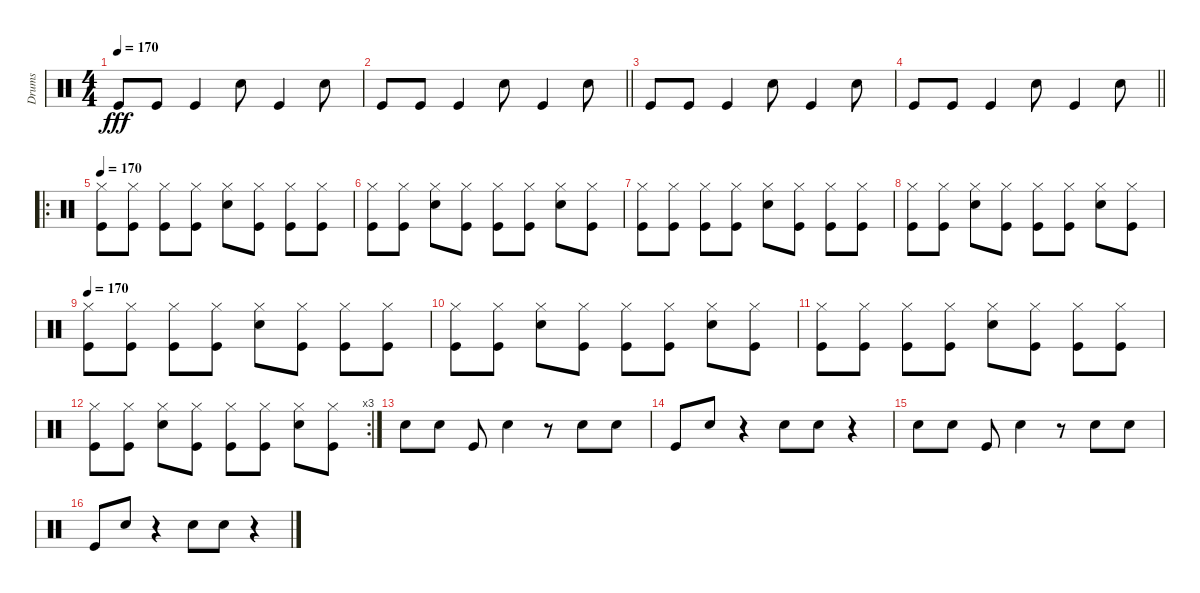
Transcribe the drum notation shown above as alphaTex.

\track ("Drums" "Drums") {instrument percussion}
\staff {score}
\articulation defaults
\ts (4 4)
\tempo 170
\clef neutral
\ks c "Kick (hit)".8{dy fff} "Kick (hit)".8 "Kick (hit)".4 "Snare (hit) 2".8 "Kick (hit)".4 "Snare (hit) 2".8
|
\barLineRight lightlight "Kick (hit)".8 "Kick (hit)".8 "Kick (hit)".4 "Snare (hit) 2".8 "Kick (hit)".4 "Snare (hit) 2".8
|
"Kick (hit)".8 "Kick (hit)".8 "Kick (hit)".4 "Snare (hit) 2".8 "Kick (hit)".4 "Snare (hit) 2".8 |
\barLineRight lightlight "Kick (hit)".8 "Kick (hit)".8 "Kick (hit)".4 "Snare (hit) 2".8 "Kick (hit)".4 "Snare (hit) 2".8
|
\ro
\tempo 170
("Kick (hit)" "Hi-Hat (closed)").8 ("Kick (hit)" "Hi-Hat (closed)").8 ("Kick (hit)" "Hi-Hat (closed)").8 ("Kick (hit)" "Hi-Hat (closed)").8 ("Snare (hit) 2" "Hi-Hat (closed)").8 ("Kick (hit)" "Hi-Hat (closed)").8 ("Kick (hit)" "Hi-Hat (closed)").8 ("Kick (hit)" "Hi-Hat (closed)").8 |
("Kick (hit)" "Hi-Hat (closed)").8 ("Kick (hit)" "Hi-Hat (closed)").8 ("Snare (hit) 2" "Hi-Hat (closed)").8 ("Kick (hit)" "Hi-Hat (closed)").8 ("Kick (hit)" "Hi-Hat (closed)").8 ("Kick (hit)" "Hi-Hat (closed)").8 ("Snare (hit) 2" "Hi-Hat (closed)").8 ("Kick (hit)" "Hi-Hat (closed)").8 |
("Kick (hit)" "Hi-Hat (closed)").8 ("Kick (hit)" "Hi-Hat (closed)").8 ("Kick (hit)" "Hi-Hat (closed)").8 ("Kick (hit)" "Hi-Hat (closed)").8 ("Snare (hit) 2" "Hi-Hat (closed)").8 ("Kick (hit)" "Hi-Hat (closed)").8 ("Kick (hit)" "Hi-Hat (closed)").8 ("Kick (hit)" "Hi-Hat (closed)").8 |
("Kick (hit)" "Hi-Hat (closed)").8 ("Kick (hit)" "Hi-Hat (closed)").8 ("Snare (hit) 2" "Hi-Hat (closed)").8 ("Kick (hit)" "Hi-Hat (closed)").8 ("Kick (hit)" "Hi-Hat (closed)").8 ("Kick (hit)" "Hi-Hat (closed)").8 ("Snare (hit) 2" "Hi-Hat (closed)").8 ("Kick (hit)" "Hi-Hat (closed)").8 |
\tempo 170
("Kick (hit)" "Hi-Hat (closed)").8 ("Kick (hit)" "Hi-Hat (closed)").8 ("Kick (hit)" "Hi-Hat (closed)").8 ("Kick (hit)" "Hi-Hat (closed)").8 ("Snare (hit) 2" "Hi-Hat (closed)").8 ("Kick (hit)" "Hi-Hat (closed)").8 ("Kick (hit)" "Hi-Hat (closed)").8 ("Kick (hit)" "Hi-Hat (closed)").8 |
("Kick (hit)" "Hi-Hat (closed)").8 ("Kick (hit)" "Hi-Hat (closed)").8 ("Snare (hit) 2" "Hi-Hat (closed)").8 ("Kick (hit)" "Hi-Hat (closed)").8 ("Kick (hit)" "Hi-Hat (closed)").8 ("Kick (hit)" "Hi-Hat (closed)").8 ("Snare (hit) 2" "Hi-Hat (closed)").8 ("Kick (hit)" "Hi-Hat (closed)").8 |
("Kick (hit)" "Hi-Hat (closed)").8 ("Kick (hit)" "Hi-Hat (closed)").8 ("Kick (hit)" "Hi-Hat (closed)").8 ("Kick (hit)" "Hi-Hat (closed)").8 ("Snare (hit) 2" "Hi-Hat (closed)").8 ("Kick (hit)" "Hi-Hat (closed)").8 ("Kick (hit)" "Hi-Hat (closed)").8 ("Kick (hit)" "Hi-Hat (closed)").8 |
\rc 3
("Kick (hit)" "Hi-Hat (closed)").8 ("Kick (hit)" "Hi-Hat (closed)").8 ("Snare (hit) 2" "Hi-Hat (closed)").8 ("Kick (hit)" "Hi-Hat (closed)").8 ("Kick (hit)" "Hi-Hat (closed)").8 ("Kick (hit)" "Hi-Hat (closed)").8 ("Snare (hit) 2" "Hi-Hat (closed)").8 ("Kick (hit)" "Hi-Hat (closed)").8 |
"Snare (hit) 2".8 "Snare (hit) 2".8 "Kick (hit)".8 "Snare (hit) 2".4 r.8 "Snare (hit) 2".8 "Snare (hit) 2".8 |
"Kick (hit)".8 "Snare (hit) 2".8 r.4 "Snare (hit) 2".8 "Snare (hit) 2".8 r.4 |
"Snare (hit) 2".8 "Snare (hit) 2".8 "Kick (hit)".8 "Snare (hit) 2".4 r.8 "Snare (hit) 2".8 "Snare (hit) 2".8 |
"Kick (hit)".8 "Snare (hit) 2".8 r.4 "Snare (hit) 2".8 "Snare (hit) 2".8 r.4
